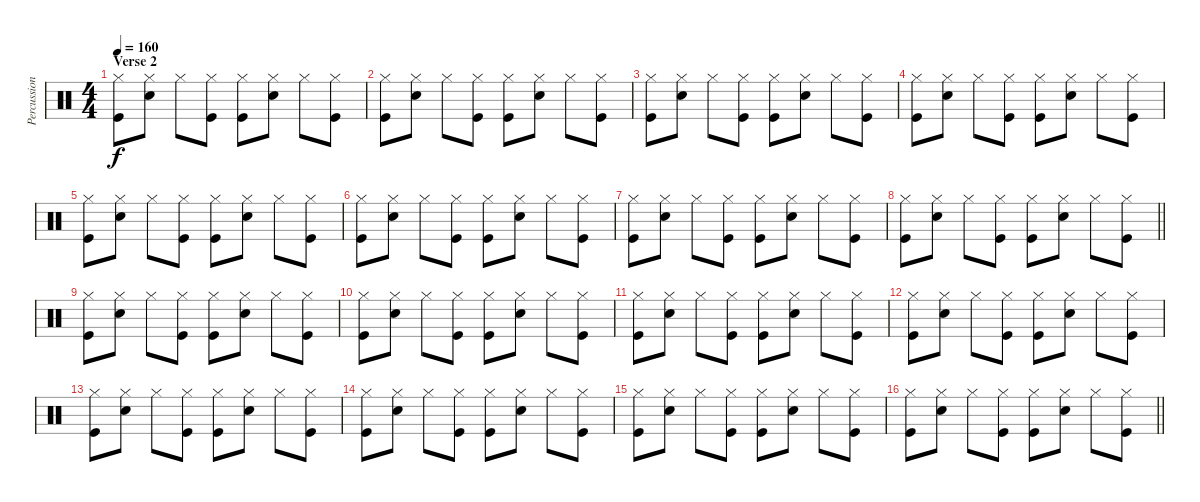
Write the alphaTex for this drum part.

\track ("Percussion" "Percussion") {instrument percussion}
\staff {score}
\articulation defaults
\ts (4 4)
\section ("" "Verse 2")
\tempo 160
\clef neutral
\ks c
("Hi-Hat (closed)" "Kick (hit)").8{dy f} ("Hi-Hat (closed)" "Electric Snare (hit)").8 "Hi-Hat (closed)".8 ("Hi-Hat (closed)" "Kick (hit)").8 ("Hi-Hat (closed)" "Kick (hit)").8 ("Hi-Hat (closed)" "Electric Snare (hit)").8 "Hi-Hat (closed)".8 ("Hi-Hat (closed)" "Kick (hit)").8 |
("Hi-Hat (closed)" "Kick (hit)").8 ("Hi-Hat (closed)" "Electric Snare (hit)").8 "Hi-Hat (closed)".8 ("Hi-Hat (closed)" "Kick (hit)").8 ("Hi-Hat (closed)" "Kick (hit)").8 ("Hi-Hat (closed)" "Electric Snare (hit)").8 "Hi-Hat (closed)".8 ("Hi-Hat (closed)" "Kick (hit)").8 |
("Hi-Hat (closed)" "Kick (hit)").8 ("Hi-Hat (closed)" "Electric Snare (hit)").8 "Hi-Hat (closed)".8 ("Hi-Hat (closed)" "Kick (hit)").8 ("Hi-Hat (closed)" "Kick (hit)").8 ("Hi-Hat (closed)" "Electric Snare (hit)").8 "Hi-Hat (closed)".8 ("Hi-Hat (closed)" "Kick (hit)").8 |
("Hi-Hat (closed)" "Kick (hit)").8 ("Hi-Hat (closed)" "Electric Snare (hit)").8 "Hi-Hat (closed)".8 ("Hi-Hat (closed)" "Kick (hit)").8 ("Hi-Hat (closed)" "Kick (hit)").8 ("Hi-Hat (closed)" "Electric Snare (hit)").8 "Hi-Hat (closed)".8 ("Hi-Hat (closed)" "Kick (hit)").8 |
("Hi-Hat (closed)" "Kick (hit)").8 ("Hi-Hat (closed)" "Electric Snare (hit)").8 "Hi-Hat (closed)".8 ("Hi-Hat (closed)" "Kick (hit)").8 ("Hi-Hat (closed)" "Kick (hit)").8 ("Hi-Hat (closed)" "Electric Snare (hit)").8 "Hi-Hat (closed)".8 ("Hi-Hat (closed)" "Kick (hit)").8 |
("Hi-Hat (closed)" "Kick (hit)").8 ("Hi-Hat (closed)" "Electric Snare (hit)").8 "Hi-Hat (closed)".8 ("Hi-Hat (closed)" "Kick (hit)").8 ("Hi-Hat (closed)" "Kick (hit)").8 ("Hi-Hat (closed)" "Electric Snare (hit)").8 "Hi-Hat (closed)".8 ("Hi-Hat (closed)" "Kick (hit)").8 |
("Hi-Hat (closed)" "Kick (hit)").8 ("Hi-Hat (closed)" "Electric Snare (hit)").8 "Hi-Hat (closed)".8 ("Hi-Hat (closed)" "Kick (hit)").8 ("Hi-Hat (closed)" "Kick (hit)").8 ("Hi-Hat (closed)" "Electric Snare (hit)").8 "Hi-Hat (closed)".8 ("Hi-Hat (closed)" "Kick (hit)").8 |
\barLineRight lightlight
("Hi-Hat (closed)" "Kick (hit)").8 ("Hi-Hat (closed)" "Electric Snare (hit)").8 "Hi-Hat (closed)".8 ("Hi-Hat (closed)" "Kick (hit)").8 ("Hi-Hat (closed)" "Kick (hit)").8 ("Hi-Hat (closed)" "Electric Snare (hit)").8 "Hi-Hat (closed)".8 ("Hi-Hat (closed)" "Kick (hit)").8 |
("Hi-Hat (closed)" "Kick (hit)").8 ("Hi-Hat (closed)" "Electric Snare (hit)").8 "Hi-Hat (closed)".8 ("Hi-Hat (closed)" "Kick (hit)").8 ("Hi-Hat (closed)" "Kick (hit)").8 ("Hi-Hat (closed)" "Electric Snare (hit)").8 "Hi-Hat (closed)".8 ("Hi-Hat (closed)" "Kick (hit)").8 |
("Hi-Hat (closed)" "Kick (hit)").8 ("Hi-Hat (closed)" "Electric Snare (hit)").8 "Hi-Hat (closed)".8 ("Hi-Hat (closed)" "Kick (hit)").8 ("Hi-Hat (closed)" "Kick (hit)").8 ("Hi-Hat (closed)" "Electric Snare (hit)").8 "Hi-Hat (closed)".8 ("Hi-Hat (closed)" "Kick (hit)").8 |
("Hi-Hat (closed)" "Kick (hit)").8 ("Hi-Hat (closed)" "Electric Snare (hit)").8 "Hi-Hat (closed)".8 ("Hi-Hat (closed)" "Kick (hit)").8 ("Hi-Hat (closed)" "Kick (hit)").8 ("Hi-Hat (closed)" "Electric Snare (hit)").8 "Hi-Hat (closed)".8 ("Hi-Hat (closed)" "Kick (hit)").8 |
("Hi-Hat (closed)" "Kick (hit)").8 ("Hi-Hat (closed)" "Electric Snare (hit)").8 "Hi-Hat (closed)".8 ("Hi-Hat (closed)" "Kick (hit)").8 ("Hi-Hat (closed)" "Kick (hit)").8 ("Hi-Hat (closed)" "Electric Snare (hit)").8 "Hi-Hat (closed)".8 ("Hi-Hat (closed)" "Kick (hit)").8 |
("Hi-Hat (closed)" "Kick (hit)").8 ("Hi-Hat (closed)" "Electric Snare (hit)").8 "Hi-Hat (closed)".8 ("Hi-Hat (closed)" "Kick (hit)").8 ("Hi-Hat (closed)" "Kick (hit)").8 ("Hi-Hat (closed)" "Electric Snare (hit)").8 "Hi-Hat (closed)".8 ("Hi-Hat (closed)" "Kick (hit)").8 |
("Hi-Hat (closed)" "Kick (hit)").8 ("Hi-Hat (closed)" "Electric Snare (hit)").8 "Hi-Hat (closed)".8 ("Hi-Hat (closed)" "Kick (hit)").8 ("Hi-Hat (closed)" "Kick (hit)").8 ("Hi-Hat (closed)" "Electric Snare (hit)").8 "Hi-Hat (closed)".8 ("Hi-Hat (closed)" "Kick (hit)").8 |
("Hi-Hat (closed)" "Kick (hit)").8 ("Hi-Hat (closed)" "Electric Snare (hit)").8 "Hi-Hat (closed)".8 ("Hi-Hat (closed)" "Kick (hit)").8 ("Hi-Hat (closed)" "Kick (hit)").8 ("Hi-Hat (closed)" "Electric Snare (hit)").8 "Hi-Hat (closed)".8 ("Hi-Hat (closed)" "Kick (hit)").8 |
\barLineRight lightlight
("Hi-Hat (closed)" "Kick (hit)").8 ("Hi-Hat (closed)" "Electric Snare (hit)").8 "Hi-Hat (closed)".8 ("Hi-Hat (closed)" "Kick (hit)").8 ("Hi-Hat (closed)" "Kick (hit)").8 ("Hi-Hat (closed)" "Electric Snare (hit)").8 "Hi-Hat (closed)".8 ("Hi-Hat (closed)" "Kick (hit)").8
